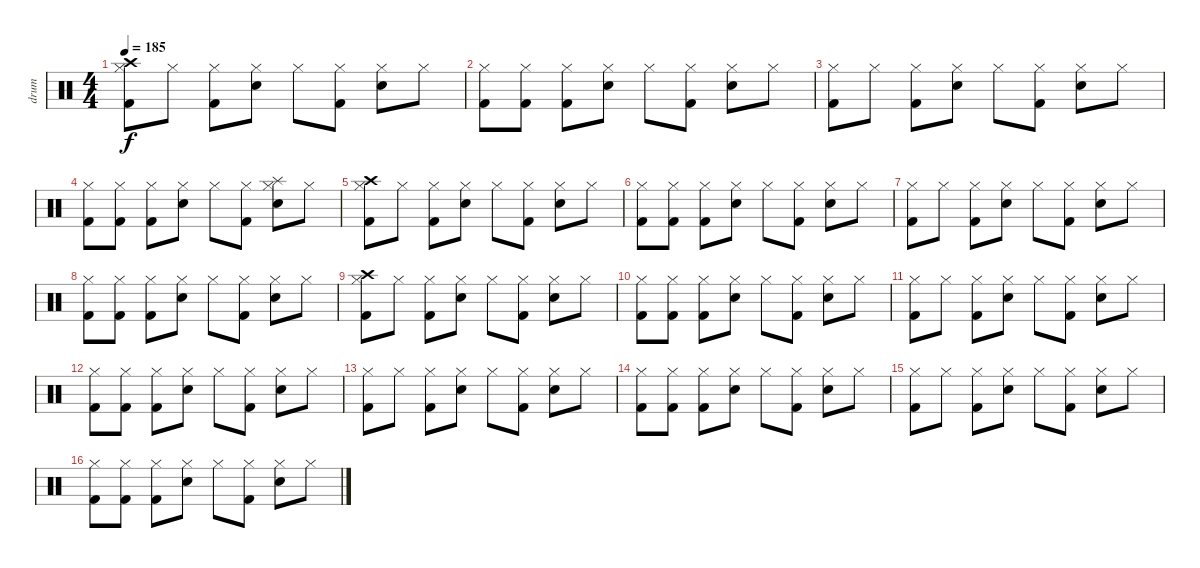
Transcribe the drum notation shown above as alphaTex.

\track ("drum" "drum") {instrument percussion}
\staff {score}
\articulation defaults
\ts (4 4)
\tempo 185
\clef neutral
\ks c
("Hi-Hat (closed)" "Crash high (hit)" "Kick (hit) 2").8{dy f} "Hi-Hat (closed)".8 ("Hi-Hat (closed)" "Kick (hit) 2").8 ("Hi-Hat (closed)" "Electric Snare (hit)").8 "Hi-Hat (closed)".8 ("Hi-Hat (closed)" "Kick (hit) 2").8 ("Hi-Hat (closed)" "Electric Snare (hit)").8 "Hi-Hat (closed)".8 |
("Hi-Hat (closed)" "Kick (hit) 2").8 ("Hi-Hat (closed)" "Kick (hit) 2").8 ("Hi-Hat (closed)" "Kick (hit) 2").8 ("Hi-Hat (closed)" "Electric Snare (hit)").8 "Hi-Hat (closed)".8 ("Hi-Hat (closed)" "Kick (hit) 2").8 ("Hi-Hat (closed)" "Electric Snare (hit)").8 "Hi-Hat (closed)".8 |
("Hi-Hat (closed)" "Kick (hit) 2").8 "Hi-Hat (closed)".8 ("Hi-Hat (closed)" "Kick (hit) 2").8 ("Hi-Hat (closed)" "Electric Snare (hit)").8 "Hi-Hat (closed)".8 ("Hi-Hat (closed)" "Kick (hit) 2").8 ("Hi-Hat (closed)" "Electric Snare (hit)").8 "Hi-Hat (closed)".8 |
("Hi-Hat (closed)" "Kick (hit) 2").8 ("Hi-Hat (closed)" "Kick (hit) 2").8 ("Hi-Hat (closed)" "Kick (hit) 2").8 ("Hi-Hat (closed)" "Electric Snare (hit)").8 "Hi-Hat (closed)".8 ("Hi-Hat (closed)" "Kick (hit) 2").8 ("Hi-Hat (closed)" "Electric Snare (hit)" "Splash (hit)").8 "Hi-Hat (closed)".8 |
("Hi-Hat (closed)" "Crash high (hit)" "Kick (hit) 2").8 "Hi-Hat (closed)".8 ("Hi-Hat (closed)" "Kick (hit) 2").8 ("Hi-Hat (closed)" "Electric Snare (hit)").8 "Hi-Hat (closed)".8 ("Hi-Hat (closed)" "Kick (hit) 2").8 ("Hi-Hat (closed)" "Electric Snare (hit)").8 "Hi-Hat (closed)".8 |
("Hi-Hat (closed)" "Kick (hit) 2").8 ("Hi-Hat (closed)" "Kick (hit) 2").8 ("Hi-Hat (closed)" "Kick (hit) 2").8 ("Hi-Hat (closed)" "Electric Snare (hit)").8 "Hi-Hat (closed)".8 ("Hi-Hat (closed)" "Kick (hit) 2").8 ("Hi-Hat (closed)" "Electric Snare (hit)").8 "Hi-Hat (closed)".8 |
("Hi-Hat (closed)" "Kick (hit) 2").8 "Hi-Hat (closed)".8 ("Hi-Hat (closed)" "Kick (hit) 2").8 ("Hi-Hat (closed)" "Electric Snare (hit)").8 "Hi-Hat (closed)".8 ("Hi-Hat (closed)" "Kick (hit) 2").8 ("Hi-Hat (closed)" "Electric Snare (hit)").8 "Hi-Hat (closed)".8 |
("Hi-Hat (closed)" "Kick (hit) 2").8 ("Hi-Hat (closed)" "Kick (hit) 2").8 ("Hi-Hat (closed)" "Kick (hit) 2").8 ("Hi-Hat (closed)" "Electric Snare (hit)").8 "Hi-Hat (closed)".8 ("Hi-Hat (closed)" "Kick (hit) 2").8 ("Hi-Hat (closed)" "Electric Snare (hit)").8 "Hi-Hat (closed)".8 |
("Hi-Hat (closed)" "Crash high (hit)" "Kick (hit) 2").8 "Hi-Hat (closed)".8 ("Hi-Hat (closed)" "Kick (hit) 2").8 ("Hi-Hat (closed)" "Electric Snare (hit)").8 "Hi-Hat (closed)".8 ("Hi-Hat (closed)" "Kick (hit) 2").8 ("Hi-Hat (closed)" "Electric Snare (hit)").8 "Hi-Hat (closed)".8 |
("Hi-Hat (closed)" "Kick (hit) 2").8 ("Hi-Hat (closed)" "Kick (hit) 2").8 ("Hi-Hat (closed)" "Kick (hit) 2").8 ("Hi-Hat (closed)" "Electric Snare (hit)").8 "Hi-Hat (closed)".8 ("Hi-Hat (closed)" "Kick (hit) 2").8 ("Hi-Hat (closed)" "Electric Snare (hit)").8 "Hi-Hat (closed)".8 |
("Hi-Hat (closed)" "Kick (hit) 2").8 "Hi-Hat (closed)".8 ("Hi-Hat (closed)" "Kick (hit) 2").8 ("Hi-Hat (closed)" "Electric Snare (hit)").8 "Hi-Hat (closed)".8 ("Hi-Hat (closed)" "Kick (hit) 2").8 ("Hi-Hat (closed)" "Electric Snare (hit)").8 "Hi-Hat (closed)".8 |
("Hi-Hat (closed)" "Kick (hit) 2").8 ("Hi-Hat (closed)" "Kick (hit) 2").8 ("Hi-Hat (closed)" "Kick (hit) 2").8 ("Hi-Hat (closed)" "Electric Snare (hit)").8 "Hi-Hat (closed)".8 ("Hi-Hat (closed)" "Kick (hit) 2").8 ("Hi-Hat (closed)" "Electric Snare (hit)").8 "Hi-Hat (closed)".8 |
("Hi-Hat (closed)" "Kick (hit) 2").8 "Hi-Hat (closed)".8 ("Hi-Hat (closed)" "Kick (hit) 2").8 ("Hi-Hat (closed)" "Electric Snare (hit)").8 "Hi-Hat (closed)".8 ("Hi-Hat (closed)" "Kick (hit) 2").8 ("Hi-Hat (closed)" "Electric Snare (hit)").8 "Hi-Hat (closed)".8 |
("Hi-Hat (closed)" "Kick (hit) 2").8 ("Hi-Hat (closed)" "Kick (hit) 2").8 ("Hi-Hat (closed)" "Kick (hit) 2").8 ("Hi-Hat (closed)" "Electric Snare (hit)").8 "Hi-Hat (closed)".8 ("Hi-Hat (closed)" "Kick (hit) 2").8 ("Hi-Hat (closed)" "Electric Snare (hit)").8 "Hi-Hat (closed)".8 |
("Hi-Hat (closed)" "Kick (hit) 2").8 "Hi-Hat (closed)".8 ("Hi-Hat (closed)" "Kick (hit) 2").8 ("Hi-Hat (closed)" "Electric Snare (hit)").8 "Hi-Hat (closed)".8 ("Hi-Hat (closed)" "Kick (hit) 2").8 ("Hi-Hat (closed)" "Electric Snare (hit)").8 "Hi-Hat (closed)".8 |
("Hi-Hat (closed)" "Kick (hit) 2").8 ("Hi-Hat (closed)" "Kick (hit) 2").8 ("Hi-Hat (closed)" "Kick (hit) 2").8 ("Hi-Hat (closed)" "Electric Snare (hit)").8 "Hi-Hat (closed)".8 ("Hi-Hat (closed)" "Kick (hit) 2").8 ("Hi-Hat (closed)" "Electric Snare (hit)").8 "Hi-Hat (closed)".8
